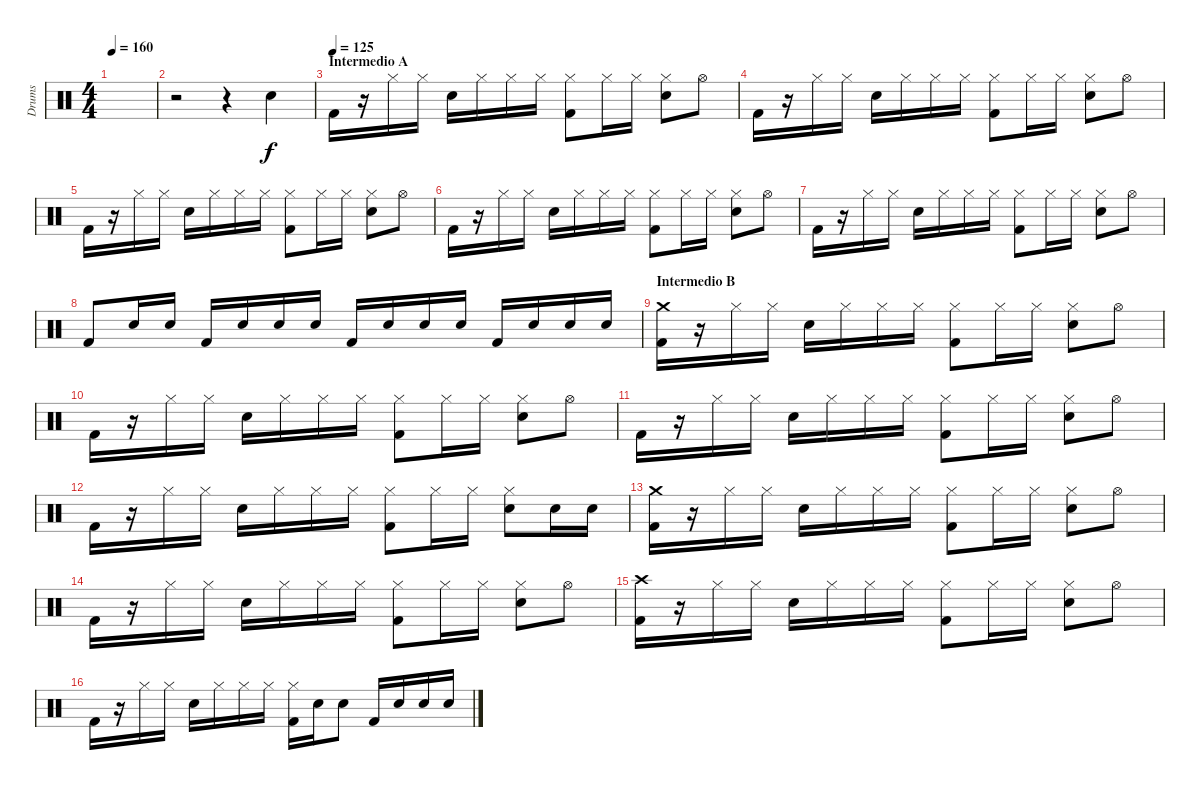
\track ("Drums" "Drums") {instrument percussion}
\staff {score}
\articulation defaults
\ts (4 4)
\tempo 160
\clef neutral
\ks c
|
r.2 r.4 "Electric Snare (hit)".4 |
\section ("" "Intermedio A")
\tempo (125)
"Kick (hit) 2".16 r.16 "Hi-Hat (closed)".16 "Hi-Hat (closed)".16 "Electric Snare (hit)".16 "Hi-Hat (closed)".16 "Hi-Hat (closed)".16 "Hi-Hat (closed)".16 ("Hi-Hat (closed)" "Kick (hit) 2").8 "Hi-Hat (closed)".16 "Hi-Hat (closed)".16 ("Hi-Hat (closed)" "Electric Snare (hit)").8 "Hi-Hat (open)".8 |
"Kick (hit) 2".16 r.16 "Hi-Hat (closed)".16 "Hi-Hat (closed)".16 "Electric Snare (hit)".16 "Hi-Hat (closed)".16 "Hi-Hat (closed)".16 "Hi-Hat (closed)".16 ("Hi-Hat (closed)" "Kick (hit) 2").8 "Hi-Hat (closed)".16 "Hi-Hat (closed)".16 ("Hi-Hat (closed)" "Electric Snare (hit)").8 "Hi-Hat (open)".8 |
"Kick (hit) 2".16 r.16 "Hi-Hat (closed)".16 "Hi-Hat (closed)".16 "Electric Snare (hit)".16 "Hi-Hat (closed)".16 "Hi-Hat (closed)".16 "Hi-Hat (closed)".16 ("Hi-Hat (closed)" "Kick (hit) 2").8 "Hi-Hat (closed)".16 "Hi-Hat (closed)".16 ("Hi-Hat (closed)" "Electric Snare (hit)").8 "Hi-Hat (open)".8 |
"Kick (hit) 2".16 r.16 "Hi-Hat (closed)".16 "Hi-Hat (closed)".16 "Electric Snare (hit)".16 "Hi-Hat (closed)".16 "Hi-Hat (closed)".16 "Hi-Hat (closed)".16 ("Hi-Hat (closed)" "Kick (hit) 2").8 "Hi-Hat (closed)".16 "Hi-Hat (closed)".16 ("Hi-Hat (closed)" "Electric Snare (hit)").8 "Hi-Hat (open)".8 |
"Kick (hit) 2".16 r.16 "Hi-Hat (closed)".16 "Hi-Hat (closed)".16 "Electric Snare (hit)".16 "Hi-Hat (closed)".16 "Hi-Hat (closed)".16 "Hi-Hat (closed)".16 ("Hi-Hat (closed)" "Kick (hit) 2").8 "Hi-Hat (closed)".16 "Hi-Hat (closed)".16 ("Hi-Hat (closed)" "Electric Snare (hit)").8 "Hi-Hat (open)".8 |
"Kick (hit) 2".8 "Electric Snare (hit)".16 "Electric Snare (hit)".16 "Kick (hit) 2".16 "Electric Snare (hit)".16 "Electric Snare (hit)".16 "Electric Snare (hit)".16 "Kick (hit) 2".16 "Electric Snare (hit)".16 "Electric Snare (hit)".16 "Electric Snare (hit)".16 "Kick (hit) 2".16 "Electric Snare (hit)".16 "Electric Snare (hit)".16 "Electric Snare (hit)".16 |
\section ("" "Intermedio B")
("Crash medium (hit)" "Kick (hit) 2").16 r.16 "Hi-Hat (closed)".16 "Hi-Hat (closed)".16 "Electric Snare (hit)".16 "Hi-Hat (closed)".16 "Hi-Hat (closed)".16 "Hi-Hat (closed)".16 ("Hi-Hat (closed)" "Kick (hit) 2").8 "Hi-Hat (closed)".16 "Hi-Hat (closed)".16 ("Hi-Hat (closed)" "Electric Snare (hit)").8 "Hi-Hat (open)".8 |
"Kick (hit) 2".16 r.16 "Hi-Hat (closed)".16 "Hi-Hat (closed)".16 "Electric Snare (hit)".16 "Hi-Hat (closed)".16 "Hi-Hat (closed)".16 "Hi-Hat (closed)".16 ("Hi-Hat (closed)" "Kick (hit) 2").8 "Hi-Hat (closed)".16 "Hi-Hat (closed)".16 ("Hi-Hat (closed)" "Electric Snare (hit)").8 "Hi-Hat (open)".8 |
"Kick (hit) 2".16 r.16 "Hi-Hat (closed)".16 "Hi-Hat (closed)".16 "Electric Snare (hit)".16 "Hi-Hat (closed)".16 "Hi-Hat (closed)".16 "Hi-Hat (closed)".16 ("Hi-Hat (closed)" "Kick (hit) 2").8 "Hi-Hat (closed)".16 "Hi-Hat (closed)".16 ("Hi-Hat (closed)" "Electric Snare (hit)").8 "Hi-Hat (open)".8 |
"Kick (hit) 2".16 r.16 "Hi-Hat (closed)".16 "Hi-Hat (closed)".16 "Electric Snare (hit)".16 "Hi-Hat (closed)".16 "Hi-Hat (closed)".16 "Hi-Hat (closed)".16 ("Hi-Hat (closed)" "Kick (hit) 2").8 "Hi-Hat (closed)".16 "Hi-Hat (closed)".16 ("Hi-Hat (closed)" "Electric Snare (hit)").8 "Electric Snare (hit)".16 "Electric Snare (hit)".16 |
("Crash medium (hit)" "Kick (hit) 2").16 r.16 "Hi-Hat (closed)".16 "Hi-Hat (closed)".16 "Electric Snare (hit)".16 "Hi-Hat (closed)".16 "Hi-Hat (closed)".16 "Hi-Hat (closed)".16 ("Hi-Hat (closed)" "Kick (hit) 2").8 "Hi-Hat (closed)".16 "Hi-Hat (closed)".16 ("Hi-Hat (closed)" "Electric Snare (hit)").8 "Hi-Hat (open)".8 |
"Kick (hit) 2".16 r.16 "Hi-Hat (closed)".16 "Hi-Hat (closed)".16 "Electric Snare (hit)".16 "Hi-Hat (closed)".16 "Hi-Hat (closed)".16 "Hi-Hat (closed)".16 ("Hi-Hat (closed)" "Kick (hit) 2").8 "Hi-Hat (closed)".16 "Hi-Hat (closed)".16 ("Hi-Hat (closed)" "Electric Snare (hit)").8 "Hi-Hat (open)".8 |
("Crash high (hit)" "Kick (hit) 2").16 r.16 "Hi-Hat (closed)".16 "Hi-Hat (closed)".16 "Electric Snare (hit)".16 "Hi-Hat (closed)".16 "Hi-Hat (closed)".16 "Hi-Hat (closed)".16 ("Hi-Hat (closed)" "Kick (hit) 2").8 "Hi-Hat (closed)".16 "Hi-Hat (closed)".16 ("Hi-Hat (closed)" "Electric Snare (hit)").8 "Hi-Hat (open)".8 |
"Kick (hit) 2".16 r.16 "Hi-Hat (closed)".16 "Hi-Hat (closed)".16 "Electric Snare (hit)".16 "Hi-Hat (closed)".16 "Hi-Hat (closed)".16 "Hi-Hat (closed)".16 ("Hi-Hat (closed)" "Kick (hit) 2").16 "Electric Snare (hit)".16 "Electric Snare (hit)".8 "Kick (hit) 2".16 "Electric Snare (hit)".16 "Electric Snare (hit)".16 "Electric Snare (hit)".16
